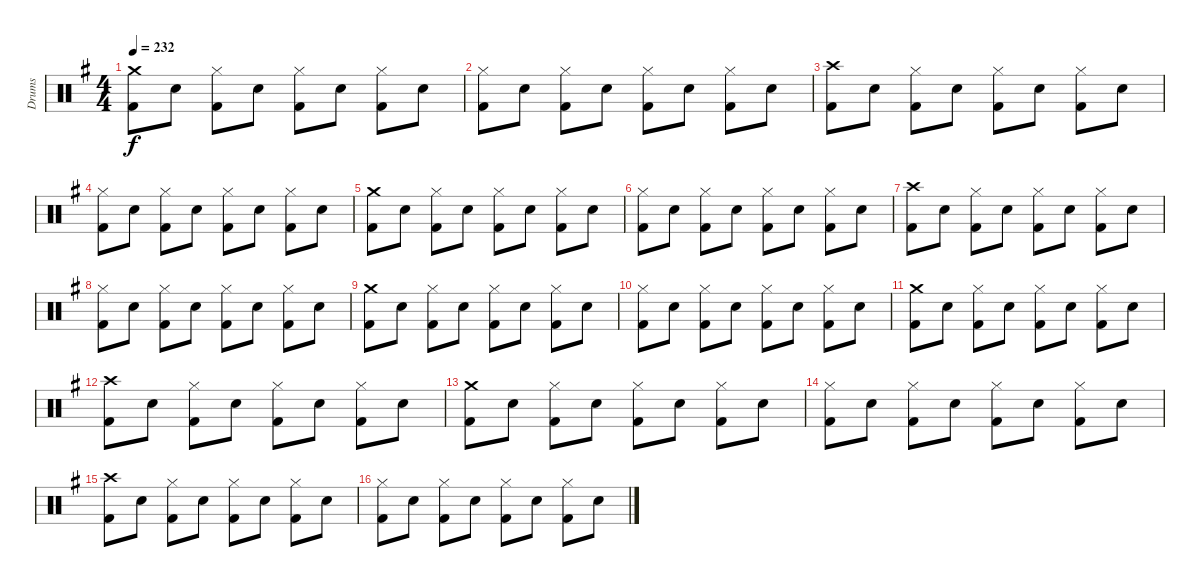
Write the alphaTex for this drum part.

\track ("Drums" "Drums") {instrument percussion}
\staff {score}
\articulation defaults
\ts (4 4)
\tempo 232
\clef neutral
\ks eminor
("Crash medium (hit)" "Kick (hit) 2").8{dy f} "Snare (hit) 2".8 ("Hi-Hat (closed)" "Kick (hit) 2").8 "Snare (hit) 2".8 ("Hi-Hat (closed)" "Kick (hit) 2").8 "Snare (hit) 2".8 ("Hi-Hat (closed)" "Kick (hit) 2").8 "Snare (hit) 2".8 |
("Hi-Hat (closed)" "Kick (hit) 2").8 "Snare (hit) 2".8 ("Hi-Hat (closed)" "Kick (hit) 2").8 "Snare (hit) 2".8 ("Hi-Hat (closed)" "Kick (hit) 2").8 "Snare (hit) 2".8 ("Hi-Hat (closed)" "Kick (hit) 2").8 "Snare (hit) 2".8 |
("Crash high (hit)" "Kick (hit) 2").8 "Snare (hit) 2".8 ("Hi-Hat (closed)" "Kick (hit) 2").8 "Snare (hit) 2".8 ("Hi-Hat (closed)" "Kick (hit) 2").8 "Snare (hit) 2".8 ("Hi-Hat (closed)" "Kick (hit) 2").8 "Snare (hit) 2".8 |
("Hi-Hat (closed)" "Kick (hit) 2").8 "Snare (hit) 2".8 ("Hi-Hat (closed)" "Kick (hit) 2").8 "Snare (hit) 2".8 ("Hi-Hat (closed)" "Kick (hit) 2").8 "Snare (hit) 2".8 ("Hi-Hat (closed)" "Kick (hit) 2").8 "Snare (hit) 2".8 |
("Crash medium (hit)" "Kick (hit) 2").8 "Snare (hit) 2".8 ("Hi-Hat (closed)" "Kick (hit) 2").8 "Snare (hit) 2".8 ("Hi-Hat (closed)" "Kick (hit) 2").8 "Snare (hit) 2".8 ("Hi-Hat (closed)" "Kick (hit) 2").8 "Snare (hit) 2".8 |
("Hi-Hat (closed)" "Kick (hit) 2").8 "Snare (hit) 2".8 ("Hi-Hat (closed)" "Kick (hit) 2").8 "Snare (hit) 2".8 ("Hi-Hat (closed)" "Kick (hit) 2").8 "Snare (hit) 2".8 ("Hi-Hat (closed)" "Kick (hit) 2").8 "Snare (hit) 2".8 |
("Crash high (hit)" "Kick (hit) 2").8 "Snare (hit) 2".8 ("Hi-Hat (closed)" "Kick (hit) 2").8 "Snare (hit) 2".8 ("Hi-Hat (closed)" "Kick (hit) 2").8 "Snare (hit) 2".8 ("Hi-Hat (closed)" "Kick (hit) 2").8 "Snare (hit) 2".8 |
("Hi-Hat (closed)" "Kick (hit) 2").8 "Snare (hit) 2".8 ("Hi-Hat (closed)" "Kick (hit) 2").8 "Snare (hit) 2".8 ("Hi-Hat (closed)" "Kick (hit) 2").8 "Snare (hit) 2".8 ("Hi-Hat (closed)" "Kick (hit) 2").8 "Snare (hit) 2".8 |
("Crash medium (hit)" "Kick (hit) 2").8 "Snare (hit) 2".8 ("Hi-Hat (closed)" "Kick (hit) 2").8 "Snare (hit) 2".8 ("Hi-Hat (closed)" "Kick (hit) 2").8 "Snare (hit) 2".8 ("Hi-Hat (closed)" "Kick (hit) 2").8 "Snare (hit) 2".8 |
("Hi-Hat (closed)" "Kick (hit) 2").8 "Snare (hit) 2".8 ("Hi-Hat (closed)" "Kick (hit) 2").8 "Snare (hit) 2".8 ("Hi-Hat (closed)" "Kick (hit) 2").8 "Snare (hit) 2".8 ("Hi-Hat (closed)" "Kick (hit) 2").8 "Snare (hit) 2".8 |
("Crash medium (hit)" "Kick (hit) 2").8 "Snare (hit) 2".8 ("Hi-Hat (closed)" "Kick (hit) 2").8 "Snare (hit) 2".8 ("Hi-Hat (closed)" "Kick (hit) 2").8 "Snare (hit) 2".8 ("Hi-Hat (closed)" "Kick (hit) 2").8 "Snare (hit) 2".8 |
("Crash high (hit)" "Kick (hit) 2").8 "Snare (hit) 2".8 ("Hi-Hat (closed)" "Kick (hit) 2").8 "Snare (hit) 2".8 ("Hi-Hat (closed)" "Kick (hit) 2").8 "Snare (hit) 2".8 ("Hi-Hat (closed)" "Kick (hit) 2").8 "Snare (hit) 2".8 |
("Crash medium (hit)" "Kick (hit) 2").8 "Snare (hit) 2".8 ("Hi-Hat (closed)" "Kick (hit) 2").8 "Snare (hit) 2".8 ("Hi-Hat (closed)" "Kick (hit) 2").8 "Snare (hit) 2".8 ("Hi-Hat (closed)" "Kick (hit) 2").8 "Snare (hit) 2".8 |
("Hi-Hat (closed)" "Kick (hit) 2").8 "Snare (hit) 2".8 ("Hi-Hat (closed)" "Kick (hit) 2").8 "Snare (hit) 2".8 ("Hi-Hat (closed)" "Kick (hit) 2").8 "Snare (hit) 2".8 ("Hi-Hat (closed)" "Kick (hit) 2").8 "Snare (hit) 2".8 |
("Crash high (hit)" "Kick (hit) 2").8 "Snare (hit) 2".8 ("Hi-Hat (closed)" "Kick (hit) 2").8 "Snare (hit) 2".8 ("Hi-Hat (closed)" "Kick (hit) 2").8 "Snare (hit) 2".8 ("Hi-Hat (closed)" "Kick (hit) 2").8 "Snare (hit) 2".8 |
("Hi-Hat (closed)" "Kick (hit) 2").8 "Snare (hit) 2".8 ("Hi-Hat (closed)" "Kick (hit) 2").8 "Snare (hit) 2".8 ("Hi-Hat (closed)" "Kick (hit) 2").8 "Snare (hit) 2".8 ("Hi-Hat (closed)" "Kick (hit) 2").8 "Snare (hit) 2".8
